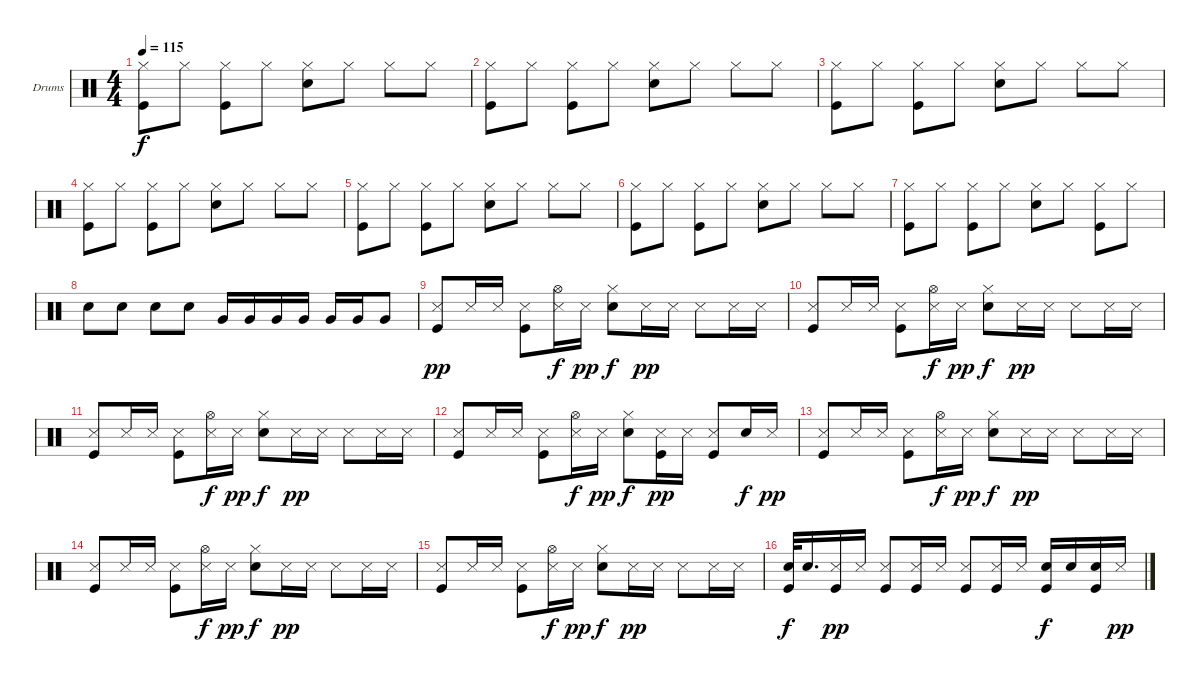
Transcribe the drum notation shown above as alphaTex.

\bracketExtendMode groupsimilarinstruments
\firstSystemTrackNameOrientation horizontal
\otherSystemsTrackNameOrientation horizontal
\track ("Drumkit" "Drums") {instrument percussion}
\staff {score}
\articulation defaults
\ts (4 4)
\tempo 115
\clef neutral
\ks c
("Hi-Hat (closed)" "Kick (hit)").8{dy f} "Hi-Hat (closed)".8 ("Hi-Hat (closed)" "Kick (hit)").8 "Hi-Hat (closed)".8 ("Hi-Hat (closed)" "Snare (hit) 2").8 "Hi-Hat (closed)".8 "Hi-Hat (closed)".8 "Hi-Hat (closed)".8 |
("Hi-Hat (closed)" "Kick (hit)").8 "Hi-Hat (closed)".8 ("Hi-Hat (closed)" "Kick (hit)").8 "Hi-Hat (closed)".8 ("Hi-Hat (closed)" "Snare (hit) 2").8 "Hi-Hat (closed)".8 "Hi-Hat (closed)".8 "Hi-Hat (closed)".8 |
("Hi-Hat (closed)" "Kick (hit)").8 "Hi-Hat (closed)".8 ("Hi-Hat (closed)" "Kick (hit)").8 "Hi-Hat (closed)".8 ("Hi-Hat (closed)" "Snare (hit) 2").8 "Hi-Hat (closed)".8 "Hi-Hat (closed)".8 "Hi-Hat (closed)".8 |
("Hi-Hat (closed)" "Kick (hit)").8 "Hi-Hat (closed)".8 ("Hi-Hat (closed)" "Kick (hit)").8 "Hi-Hat (closed)".8 ("Hi-Hat (closed)" "Snare (hit) 2").8 "Hi-Hat (closed)".8 "Hi-Hat (closed)".8 "Hi-Hat (closed)".8 |
("Hi-Hat (closed)" "Kick (hit)").8 "Hi-Hat (closed)".8 ("Hi-Hat (closed)" "Kick (hit)").8 "Hi-Hat (closed)".8 ("Hi-Hat (closed)" "Snare (hit) 2").8 "Hi-Hat (closed)".8 "Hi-Hat (closed)".8 "Hi-Hat (closed)".8 |
("Hi-Hat (closed)" "Kick (hit)").8 "Hi-Hat (closed)".8 ("Hi-Hat (closed)" "Kick (hit)").8 "Hi-Hat (closed)".8 ("Hi-Hat (closed)" "Snare (hit) 2").8 "Hi-Hat (closed)".8 "Hi-Hat (closed)".8 "Hi-Hat (closed)".8 |
("Hi-Hat (closed)" "Kick (hit)").8 "Hi-Hat (closed)".8 ("Hi-Hat (closed)" "Kick (hit)").8 "Hi-Hat (closed)".8 ("Hi-Hat (closed)" "Snare (hit) 2").8 "Hi-Hat (closed)".8 ("Hi-Hat (closed)" "Kick (hit)").8 "Hi-Hat (closed)".8 |
"Snare (hit) 2".8 "Snare (hit) 2".8 "Snare (hit) 2".8 "Snare (hit) 2".8 "Very Low Tom (hit)".16 "Very Low Tom (hit)".16 "Very Low Tom (hit)".16 "Very Low Tom (hit)".16 "Very Low Tom (hit)".16 "Very Low Tom (hit)".16 "Very Low Tom (hit)".8 |
("Snare (side stick) 3" "Kick (hit)").8{dy pp} "Snare (side stick) 3".16 "Snare (side stick) 3".16 ("Snare (side stick) 3" "Kick (hit)").8 ("Hi-Hat (open)" "Snare (side stick) 3").16{dy f} "Snare (side stick) 3".16{dy pp} ("Hi-Hat (closed)" "Snare (hit) 2").8{dy f} "Snare (side stick) 3".16{dy pp} "Snare (side stick) 3".16 "Snare (side stick) 3".8 "Snare (side stick) 3".16 "Snare (side stick) 3".16 |
("Snare (side stick) 3" "Kick (hit)").8 "Snare (side stick) 3".16 "Snare (side stick) 3".16 ("Snare (side stick) 3" "Kick (hit)").8 ("Hi-Hat (open)" "Snare (side stick) 3").16{dy f} "Snare (side stick) 3".16{dy pp} ("Hi-Hat (closed)" "Snare (hit) 2").8{dy f} "Snare (side stick) 3".16{dy pp} "Snare (side stick) 3".16 "Snare (side stick) 3".8 "Snare (side stick) 3".16 "Snare (side stick) 3".16 |
("Snare (side stick) 3" "Kick (hit)").8 "Snare (side stick) 3".16 "Snare (side stick) 3".16 ("Snare (side stick) 3" "Kick (hit)").8 ("Hi-Hat (open)" "Snare (side stick) 3").16{dy f} "Snare (side stick) 3".16{dy pp} ("Hi-Hat (closed)" "Snare (hit) 2").8{dy f} "Snare (side stick) 3".16{dy pp} "Snare (side stick) 3".16 "Snare (side stick) 3".8 "Snare (side stick) 3".16 "Snare (side stick) 3".16 |
("Snare (side stick) 3" "Kick (hit)").8 "Snare (side stick) 3".16 "Snare (side stick) 3".16 ("Snare (side stick) 3" "Kick (hit)").8 ("Hi-Hat (open)" "Snare (side stick) 3").16{dy f} "Snare (side stick) 3".16{dy pp} ("Hi-Hat (closed)" "Snare (hit) 2").8{dy f} ("Snare (side stick) 3" "Kick (hit)").16{dy pp} "Snare (side stick) 3".16 ("Snare (side stick) 3" "Kick (hit)").8 "Snare (hit) 2".16{dy f} "Snare (side stick) 3".16{dy pp} |
("Snare (side stick) 3" "Kick (hit)").8 "Snare (side stick) 3".16 "Snare (side stick) 3".16 ("Snare (side stick) 3" "Kick (hit)").8 ("Hi-Hat (open)" "Snare (side stick) 3").16{dy f} "Snare (side stick) 3".16{dy pp} ("Hi-Hat (closed)" "Snare (hit) 2").8{dy f} "Snare (side stick) 3".16{dy pp} "Snare (side stick) 3".16 "Snare (side stick) 3".8 "Snare (side stick) 3".16 "Snare (side stick) 3".16 |
("Snare (side stick) 3" "Kick (hit)").8 "Snare (side stick) 3".16 "Snare (side stick) 3".16 ("Snare (side stick) 3" "Kick (hit)").8 ("Hi-Hat (open)" "Snare (side stick) 3").16{dy f} "Snare (side stick) 3".16{dy pp} ("Hi-Hat (closed)" "Snare (hit) 2").8{dy f} "Snare (side stick) 3".16{dy pp} "Snare (side stick) 3".16 "Snare (side stick) 3".8 "Snare (side stick) 3".16 "Snare (side stick) 3".16 |
("Snare (side stick) 3" "Kick (hit)").8 "Snare (side stick) 3".16 "Snare (side stick) 3".16 ("Snare (side stick) 3" "Kick (hit)").8 ("Hi-Hat (open)" "Snare (side stick) 3").16{dy f} "Snare (side stick) 3".16{dy pp} ("Hi-Hat (closed)" "Snare (hit) 2").8{dy f} "Snare (side stick) 3".16{dy pp} "Snare (side stick) 3".16 "Snare (side stick) 3".8 "Snare (side stick) 3".16 "Snare (side stick) 3".16 |
("Snare (hit) 2" "Kick (hit)").32{dy f} "Snare (hit) 2".16{d} ("Snare (side stick) 3" "Kick (hit)").16{dy pp} "Snare (side stick) 3".16 ("Snare (side stick) 3" "Kick (hit)").8 ("Snare (side stick) 3" "Kick (hit)").16 "Snare (side stick) 3".16 ("Snare (side stick) 3" "Kick (hit)").8 ("Snare (side stick) 3" "Kick (hit)").16 "Snare (side stick) 3".16 ("Snare (hit) 2" "Kick (hit)").16{dy f} "Snare (hit) 2".16 ("Snare (hit) 2" "Kick (hit)").16 "Snare (side stick) 3".16{dy pp}
